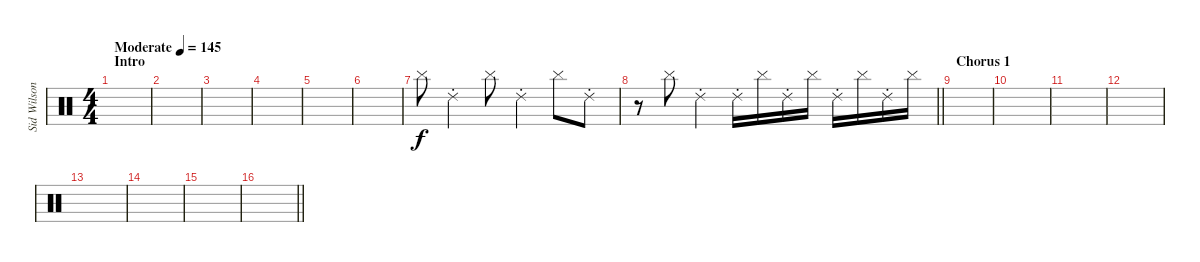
\track ("Sid Wilson" "Sid Wilson") {instrument percussion}
\staff {score}
\articulation defaults
\ts (4 4)
\section ("" "Intro")
\tempo (145 "Moderate")
\clef neutral
\ks c
|
|
|
|
|
|
"Cymbal (hit)".8 "Ride (choke) 2".4 "Cymbal (hit)".8 "Ride (choke) 2".4 "Cymbal (hit)".8 "Ride (choke) 2".8 |
\barLineRight lightlight
r.8 "Cymbal (hit)".8 "Ride (choke) 2".4 "Ride (choke) 2".16 "Cymbal (hit)".16 "Ride (choke) 2".16 "Cymbal (hit)".16 "Ride (choke) 2".16 "Cymbal (hit)".16 "Ride (choke) 2".16 "Cymbal (hit)".16 |
\section ("" "Chorus 1")
|
|
|
|
|
|
|
\barLineRight lightlight
